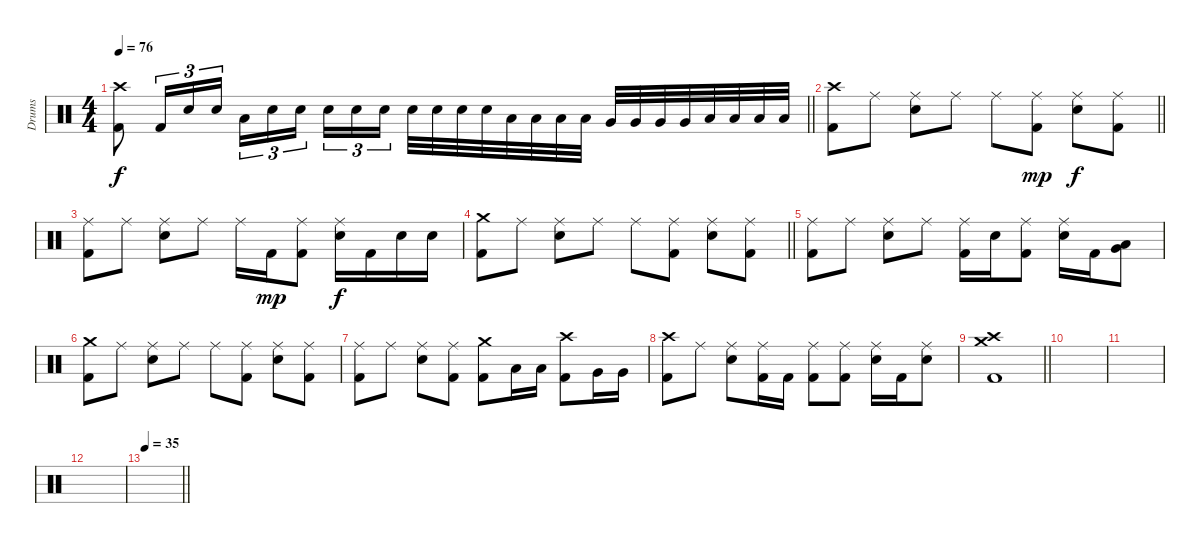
\track ("Drums" "Drums") {instrument percussion}
\staff {score}
\articulation defaults
\ts (4 4)
\tempo 76
\clef neutral
\barLineRight lightlight
\ks c
("Crash high (hit)" "Kick (hit) 2").8{dy f} "Kick (hit) 2".16{tu (3 2)} "Snare (hit) 2".16{tu (3 2)} "Snare (hit) 2".16{tu (3 2)} "Low Tom (hit)".16{tu (3 2)} "Snare (hit) 2".16{tu (3 2)} "Snare (hit) 2".16{tu (3 2) beam splitsecondary} "Snare (hit) 2".16{tu (3 2)} "Snare (hit) 2".16{tu (3 2)} "Snare (hit) 2".16{tu (3 2)} "Snare (hit) 2".32 "Snare (hit) 2".32 "Snare (hit) 2".32 "Snare (hit) 2".32 "Low Tom (hit)".32 "Low Tom (hit)".32 "Low Tom (hit)".32 "Low Tom (hit)".32 "Very Low Tom (hit)".32 "Very Low Tom (hit)".32 "Very Low Tom (hit)".32 "Very Low Tom (hit)".32 "Low Floor Tom (hit)".32 "Low Floor Tom (hit)".32 "Low Floor Tom (hit)".32 "Low Floor Tom (hit)".32 |
\barLineRight lightlight
("Crash high (hit)" "Kick (hit) 2").8 "Ride (middle)".8 ("Ride (middle)" "Snare (hit) 2").8 "Ride (middle)".8 "Ride (middle)".8 ("Ride (middle)" "Kick (hit) 2").8{dy mp} ("Ride (middle)" "Snare (hit) 2").8{dy f} ("Ride (middle)" "Kick (hit) 2").8 |
("Ride (middle)" "Kick (hit) 2").8 "Ride (middle)".8 ("Ride (middle)" "Snare (hit) 2").8 "Ride (middle)".8 "Ride (middle)".16 "Kick (hit) 2".16{dy mp} ("Ride (middle)" "Kick (hit) 2").8 ("Ride (middle)" "Snare (hit) 2").16{dy f} "Kick (hit) 2".16 "Snare (hit) 2".16 "Snare (hit) 2".16 |
\barLineRight lightlight
("Crash medium (hit)" "Kick (hit) 2").8 "Ride (middle)".8 ("Ride (middle)" "Snare (hit) 2").8 "Ride (middle)".8 "Ride (middle)".8 ("Ride (middle)" "Kick (hit) 2").8 ("Ride (middle)" "Snare (hit) 2").8 ("Ride (middle)" "Kick (hit) 2").8 |
("Ride (middle)" "Kick (hit) 2").8 "Ride (middle)".8 ("Ride (middle)" "Snare (hit) 2").8 "Ride (middle)".8 ("Ride (middle)" "Kick (hit) 2").16 "Snare (hit) 2".16 ("Ride (middle)" "Kick (hit) 2").8 ("Ride (middle)" "Snare (hit) 2").16 "Kick (hit) 2".16 ("Very Low Tom (hit)" "Low Floor Tom (hit)").8 |
("Crash medium (hit)" "Kick (hit) 2").8 "Ride (middle)".8 ("Ride (middle)" "Snare (hit) 2").8 "Ride (middle)".8 "Ride (middle)".8 ("Ride (middle)" "Kick (hit) 2").8 ("Ride (middle)" "Snare (hit) 2").8 ("Ride (middle)" "Kick (hit) 2").8 |
("Ride (middle)" "Kick (hit) 2").8 "Ride (middle)".8 ("Ride (middle)" "Snare (hit) 2").8 ("Ride (middle)" "Kick (hit) 2").8 ("Crash medium (hit)" "Kick (hit) 2").8 "Low Tom (hit)".16 "Low Tom (hit)".16 ("Crash high (hit)" "Kick (hit) 2").8 "Very Low Tom (hit)".16 "Very Low Tom (hit)".16 |
("Crash high (hit)" "Kick (hit) 2").8 "Ride (middle)".8 ("Ride (middle)" "Snare (hit) 2").8 ("Ride (middle)" "Kick (hit) 2").16 "Kick (hit) 2".16 ("Ride (middle)" "Kick (hit) 2").8 ("Ride (middle)" "Kick (hit) 2").8 ("Ride (middle)" "Snare (hit) 2").16 "Kick (hit) 2".16 ("Ride (middle)" "Snare (hit) 2").8 |
\barLineRight lightlight
("Crash high (hit)" "Crash medium (hit)" "Kick (hit) 2").1 |
|
|
|
\tempo 35
\barLineRight lightlight
